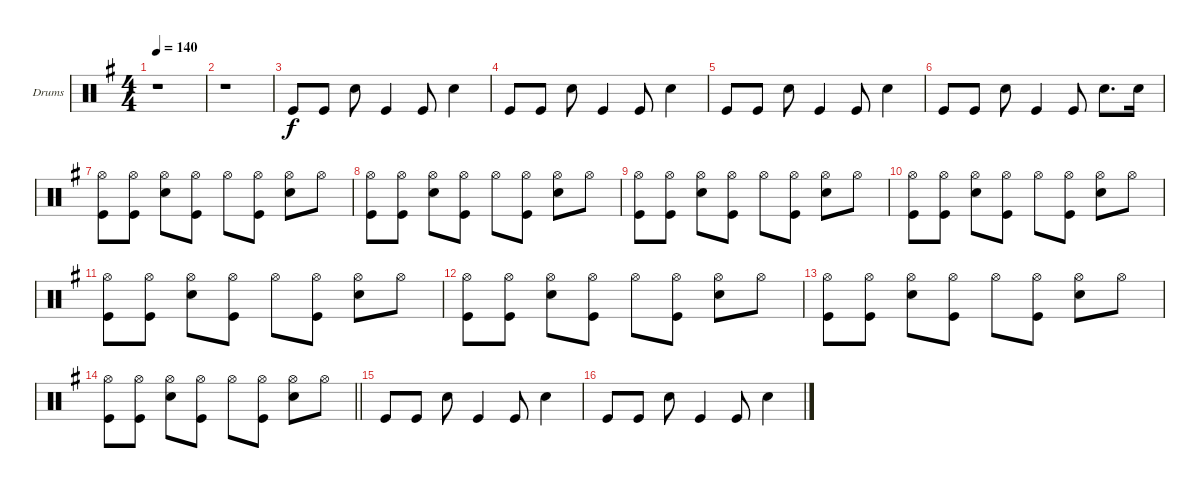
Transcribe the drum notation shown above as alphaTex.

\bracketExtendMode groupsimilarinstruments
\firstSystemTrackNameOrientation horizontal
\otherSystemsTrackNameOrientation horizontal
\track ("Fabrizio Moretti" "Drums") {instrument percussion}
\staff {score}
\articulation defaults
\ts (4 4)
\tempo 140
\clef neutral
\ks g
r.1{dy f} |
r.1 |
"Kick (hit)".8 "Kick (hit)".8 "Snare (hit) 2".8 "Kick (hit)".4 "Kick (hit)".8 "Snare (hit) 2".4 |
"Kick (hit)".8 "Kick (hit)".8 "Snare (hit) 2".8 "Kick (hit)".4 "Kick (hit)".8 "Snare (hit) 2".4 |
"Kick (hit)".8 "Kick (hit)".8 "Snare (hit) 2".8 "Kick (hit)".4 "Kick (hit)".8 "Snare (hit) 2".4 |
"Kick (hit)".8 "Kick (hit)".8 "Snare (hit) 2".8 "Kick (hit)".4 "Kick (hit)".8 "Snare (hit) 2".8{d} "Snare (hit) 2".16 |
("Hi-Hat (open)" "Kick (hit)").8 ("Hi-Hat (open)" "Kick (hit)").8 ("Hi-Hat (open)" "Snare (hit) 2").8 ("Hi-Hat (open)" "Kick (hit)").8 "Hi-Hat (open)".8 ("Hi-Hat (open)" "Kick (hit)").8 ("Hi-Hat (open)" "Snare (hit) 2").8 "Hi-Hat (open)".8 |
("Hi-Hat (open)" "Kick (hit)").8 ("Hi-Hat (open)" "Kick (hit)").8 ("Hi-Hat (open)" "Snare (hit) 2").8 ("Hi-Hat (open)" "Kick (hit)").8 "Hi-Hat (open)".8 ("Hi-Hat (open)" "Kick (hit)").8 ("Hi-Hat (open)" "Snare (hit) 2").8 "Hi-Hat (open)".8 |
("Hi-Hat (open)" "Kick (hit)").8 ("Hi-Hat (open)" "Kick (hit)").8 ("Hi-Hat (open)" "Snare (hit) 2").8 ("Hi-Hat (open)" "Kick (hit)").8 "Hi-Hat (open)".8 ("Hi-Hat (open)" "Kick (hit)").8 ("Hi-Hat (open)" "Snare (hit) 2").8 "Hi-Hat (open)".8 |
("Hi-Hat (open)" "Kick (hit)").8 ("Hi-Hat (open)" "Kick (hit)").8 ("Hi-Hat (open)" "Snare (hit) 2").8 ("Hi-Hat (open)" "Kick (hit)").8 "Hi-Hat (open)".8 ("Hi-Hat (open)" "Kick (hit)").8 ("Hi-Hat (open)" "Snare (hit) 2").8 "Hi-Hat (open)".8 |
("Hi-Hat (open)" "Kick (hit)").8 ("Hi-Hat (open)" "Kick (hit)").8 ("Hi-Hat (open)" "Snare (hit) 2").8 ("Hi-Hat (open)" "Kick (hit)").8 "Hi-Hat (open)".8 ("Hi-Hat (open)" "Kick (hit)").8 ("Hi-Hat (open)" "Snare (hit) 2").8 "Hi-Hat (open)".8 |
("Hi-Hat (open)" "Kick (hit)").8 ("Hi-Hat (open)" "Kick (hit)").8 ("Hi-Hat (open)" "Snare (hit) 2").8 ("Hi-Hat (open)" "Kick (hit)").8 "Hi-Hat (open)".8 ("Hi-Hat (open)" "Kick (hit)").8 ("Hi-Hat (open)" "Snare (hit) 2").8 "Hi-Hat (open)".8 |
("Hi-Hat (open)" "Kick (hit)").8 ("Hi-Hat (open)" "Kick (hit)").8 ("Hi-Hat (open)" "Snare (hit) 2").8 ("Hi-Hat (open)" "Kick (hit)").8 "Hi-Hat (open)".8 ("Hi-Hat (open)" "Kick (hit)").8 ("Hi-Hat (open)" "Snare (hit) 2").8 "Hi-Hat (open)".8 |
\barLineRight lightlight
("Hi-Hat (open)" "Kick (hit)").8 ("Hi-Hat (open)" "Kick (hit)").8 ("Hi-Hat (open)" "Snare (hit) 2").8 ("Hi-Hat (open)" "Kick (hit)").8 "Hi-Hat (open)".8 ("Hi-Hat (open)" "Kick (hit)").8 ("Hi-Hat (open)" "Snare (hit) 2").8 "Hi-Hat (open)".8 |
"Kick (hit)".8 "Kick (hit)".8 "Snare (hit) 2".8 "Kick (hit)".4 "Kick (hit)".8 "Snare (hit) 2".4 |
"Kick (hit)".8 "Kick (hit)".8 "Snare (hit) 2".8 "Kick (hit)".4 "Kick (hit)".8 "Snare (hit) 2".4
